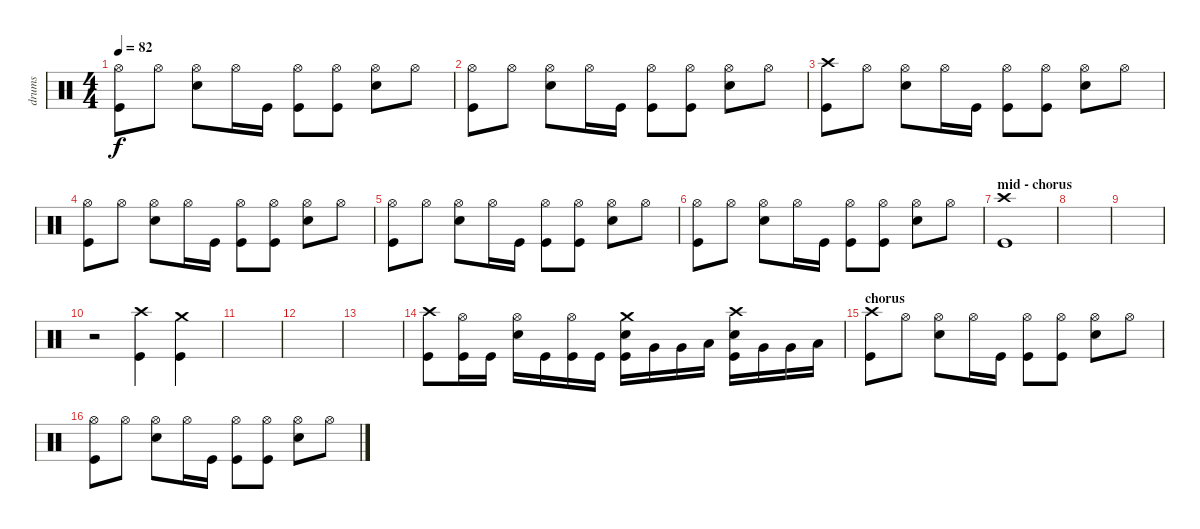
\track ("drums" "drums") {instrument percussion}
\staff {score}
\articulation defaults
\ts (4 4)
\tempo 82
\clef neutral
\ks c
("Hi-Hat (open)" "Kick (hit)").8{dy f} "Hi-Hat (open)".8 ("Hi-Hat (open)" "Snare (hit) 2").8 "Hi-Hat (open)".16 "Kick (hit)".16 ("Hi-Hat (open)" "Kick (hit)").8 ("Hi-Hat (open)" "Kick (hit)").8 ("Hi-Hat (open)" "Snare (hit) 2").8 "Hi-Hat (open)".8 |
("Hi-Hat (open)" "Kick (hit)").8 "Hi-Hat (open)".8 ("Hi-Hat (open)" "Snare (hit) 2").8 "Hi-Hat (open)".16 "Kick (hit)".16 ("Hi-Hat (open)" "Kick (hit)").8 ("Hi-Hat (open)" "Kick (hit)").8 ("Hi-Hat (open)" "Snare (hit) 2").8 "Hi-Hat (open)".8 |
("Crash high (hit)" "Kick (hit)").8 "Hi-Hat (open)".8 ("Hi-Hat (open)" "Snare (hit) 2").8 "Hi-Hat (open)".16 "Kick (hit)".16 ("Hi-Hat (open)" "Kick (hit)").8 ("Hi-Hat (open)" "Kick (hit)").8 ("Hi-Hat (open)" "Snare (hit) 2").8 "Hi-Hat (open)".8 |
("Hi-Hat (open)" "Kick (hit)").8 "Hi-Hat (open)".8 ("Hi-Hat (open)" "Snare (hit) 2").8 "Hi-Hat (open)".16 "Kick (hit)".16 ("Hi-Hat (open)" "Kick (hit)").8 ("Hi-Hat (open)" "Kick (hit)").8 ("Hi-Hat (open)" "Snare (hit) 2").8 "Hi-Hat (open)".8 |
("Hi-Hat (open)" "Kick (hit)").8 "Hi-Hat (open)".8 ("Hi-Hat (open)" "Snare (hit) 2").8 "Hi-Hat (open)".16 "Kick (hit)".16 ("Hi-Hat (open)" "Kick (hit)").8 ("Hi-Hat (open)" "Kick (hit)").8 ("Hi-Hat (open)" "Snare (hit) 2").8 "Hi-Hat (open)".8 |
("Hi-Hat (open)" "Kick (hit)").8 "Hi-Hat (open)".8 ("Hi-Hat (open)" "Snare (hit) 2").8 "Hi-Hat (open)".16 "Kick (hit)".16 ("Hi-Hat (open)" "Kick (hit)").8 ("Hi-Hat (open)" "Kick (hit)").8 ("Hi-Hat (open)" "Snare (hit) 2").8 "Hi-Hat (open)".8 |
\section ("" "mid - chorus")
("Crash high (hit)" "Kick (hit)").1 |
|
|
r.2 ("Crash high (hit)" "Kick (hit)").4 ("Crash medium (hit)" "Kick (hit)").4 |
|
|
|
("Crash high (hit)" "Kick (hit)").8 ("Hi-Hat (open)" "Kick (hit)").16 "Kick (hit)".16 ("Hi-Hat (open)" "Snare (hit) 2").16 "Kick (hit)".16 ("Hi-Hat (open)" "Kick (hit)").16 "Kick (hit)".16 ("Crash medium (hit)" "Snare (hit) 2" "Kick (hit)").16 "Very Low Tom (hit)".16 "Very Low Tom (hit)".16 "Low Floor Tom (hit)".16 ("Crash high (hit)" "Snare (hit) 2" "Kick (hit)").16 "Very Low Tom (hit)".16 "Very Low Tom (hit)".16 "Low Floor Tom (hit)".16 |
\section ("" "chorus")
("Crash high (hit)" "Kick (hit)").8 "Hi-Hat (open)".8 ("Hi-Hat (open)" "Snare (hit) 2").8 "Hi-Hat (open)".16 "Kick (hit)".16 ("Hi-Hat (open)" "Kick (hit)").8 ("Hi-Hat (open)" "Kick (hit)").8 ("Hi-Hat (open)" "Snare (hit) 2").8 "Hi-Hat (open)".8 |
("Hi-Hat (open)" "Kick (hit)").8 "Hi-Hat (open)".8 ("Hi-Hat (open)" "Snare (hit) 2").8 "Hi-Hat (open)".16 "Kick (hit)".16 ("Hi-Hat (open)" "Kick (hit)").8 ("Hi-Hat (open)" "Kick (hit)").8 ("Hi-Hat (open)" "Snare (hit) 2").8 "Hi-Hat (open)".8
